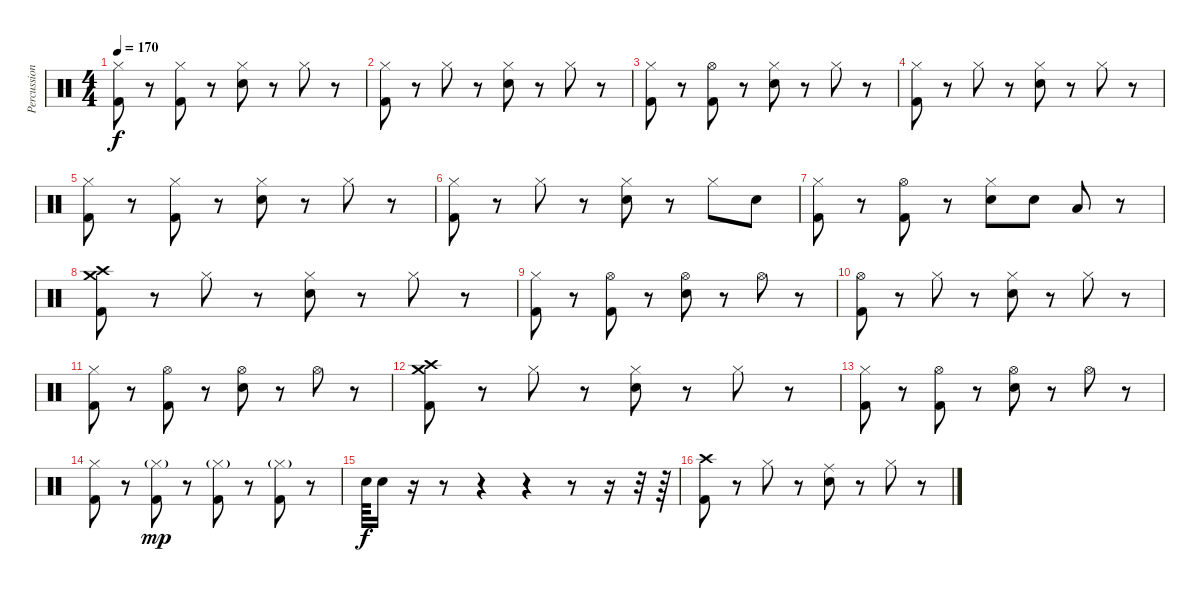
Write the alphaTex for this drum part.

\track ("Percussion" "Percussion") {instrument percussion}
\staff {score}
\articulation defaults
\ts (4 4)
\tempo 170
\clef neutral
\ks c
("Hi-Hat (closed)" "Kick (hit) 2").8{dy f} r.8 ("Hi-Hat (closed)" "Kick (hit) 2").8 r.8 ("Hi-Hat (closed)" "Electric Snare (hit)").8 r.8 "Hi-Hat (closed)".8 r.8 |
("Hi-Hat (closed)" "Kick (hit) 2").8 r.8 "Hi-Hat (closed)".8 r.8 ("Hi-Hat (closed)" "Electric Snare (hit)").8 r.8 "Hi-Hat (closed)".8 r.8 |
("Hi-Hat (closed)" "Kick (hit) 2").8 r.8 ("Hi-Hat (open)" "Kick (hit) 2").8 r.8 ("Hi-Hat (closed)" "Electric Snare (hit)").8 r.8 "Hi-Hat (closed)".8 r.8 |
("Hi-Hat (closed)" "Kick (hit) 2").8 r.8 "Hi-Hat (closed)".8 r.8 ("Hi-Hat (closed)" "Electric Snare (hit)").8 r.8 "Hi-Hat (closed)".8 r.8 |
("Hi-Hat (closed)" "Kick (hit) 2").8 r.8 ("Hi-Hat (closed)" "Kick (hit) 2").8 r.8 ("Hi-Hat (closed)" "Electric Snare (hit)").8 r.8 "Hi-Hat (closed)".8 r.8 |
("Hi-Hat (closed)" "Kick (hit) 2").8 r.8 "Hi-Hat (closed)".8 r.8 ("Hi-Hat (closed)" "Electric Snare (hit)").8 r.8 "Hi-Hat (closed)".8 "Electric Snare (hit)".8 |
("Hi-Hat (closed)" "Kick (hit) 2").8 r.8 ("Hi-Hat (open)" "Kick (hit) 2").8 r.8 ("Hi-Hat (closed)" "Electric Snare (hit)").8 "Electric Snare (hit)".8 "Low Tom (hit)".8 r.8 |
("Crash high (hit)" "Crash medium (hit)" "Kick (hit) 2").8 r.8 "Hi-Hat (closed)".8 r.8 ("Hi-Hat (closed)" "Electric Snare (hit)").8 r.8 "Hi-Hat (closed)".8 r.8 |
("Hi-Hat (closed)" "Kick (hit) 2").8 r.8 ("Hi-Hat (open)" "Kick (hit) 2").8 r.8 ("Hi-Hat (open)" "Electric Snare (hit)").8 r.8 "Hi-Hat (open)".8 r.8 |
("Hi-Hat (open)" "Kick (hit) 2").8 r.8 "Hi-Hat (closed)".8 r.8 ("Hi-Hat (closed)" "Electric Snare (hit)").8 r.8 "Hi-Hat (closed)".8 r.8 |
("Hi-Hat (closed)" "Kick (hit) 2").8 r.8 ("Hi-Hat (open)" "Kick (hit) 2").8 r.8 ("Hi-Hat (open)" "Electric Snare (hit)").8 r.8 "Hi-Hat (open)".8 r.8 |
("Crash high (hit)" "Crash medium (hit)" "Kick (hit) 2").8 r.8 "Hi-Hat (closed)".8 r.8 ("Hi-Hat (closed)" "Electric Snare (hit)").8 r.8 "Hi-Hat (closed)".8 r.8 |
("Hi-Hat (closed)" "Kick (hit) 2").8 r.8 ("Hi-Hat (open)" "Kick (hit) 2").8 r.8 ("Hi-Hat (open)" "Electric Snare (hit)").8 r.8 "Hi-Hat (open)".8 r.8 |
("Hi-Hat (closed)" "Kick (hit) 2").8 r.8 ("Hi-Hat (closed)"{g} "Kick (hit) 2").8{dy mp} r.8 ("Hi-Hat (closed)"{g} "Kick (hit) 2").8 r.8 ("Hi-Hat (closed)"{g} "Kick (hit) 2").8 r.8 |
"Electric Snare (hit)".64{dy f} "Electric Snare (hit)".16 r.16 r.8 r.4 r.4 r.8 r.16 r.32 r.64 |
("Crash high (hit)" "Kick (hit) 2").8 r.8 "Hi-Hat (closed)".8 r.8 ("Ride (middle)" "Electric Snare (hit)").8 r.8 "Hi-Hat (closed)".8 r.8
